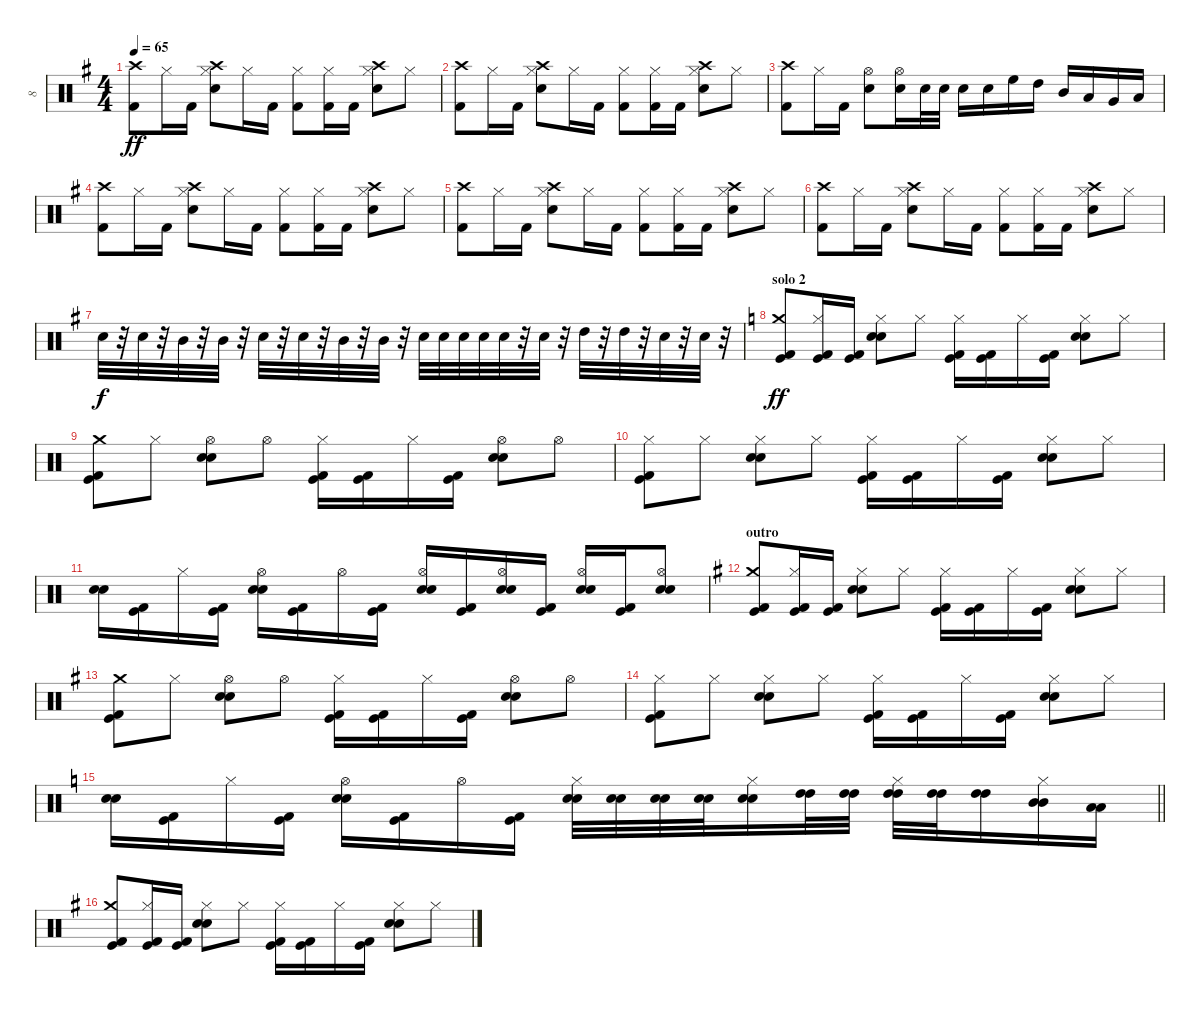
\track ("8" "8") {instrument percussion}
\staff {score}
\articulation defaults
\ts (4 4)
\tempo 65
\clef neutral
\ks eminor
("Kick (hit) 2" "Crash high (hit)").8{dy ff} "Hi-Hat (closed)".16 "Kick (hit) 2".16 ("Snare (hit) 2" "Hi-Hat (closed)" "Crash high (hit)").8 "Hi-Hat (closed)".16 "Kick (hit) 2".16 ("Kick (hit) 2" "Hi-Hat (closed)").8 ("Kick (hit) 2" "Hi-Hat (closed)").16 "Kick (hit) 2".16 ("Snare (hit) 2" "Hi-Hat (closed)" "Crash high (hit)").8 "Hi-Hat (closed)".8 |
("Kick (hit) 2" "Crash high (hit)").8 "Hi-Hat (closed)".16 "Kick (hit) 2".16 ("Snare (hit) 2" "Hi-Hat (closed)" "Crash high (hit)").8 "Hi-Hat (closed)".16 "Kick (hit) 2".16 ("Kick (hit) 2" "Hi-Hat (closed)").8 ("Kick (hit) 2" "Hi-Hat (closed)").16 "Kick (hit) 2".16 ("Snare (hit) 2" "Hi-Hat (closed)" "Crash high (hit)").8 "Hi-Hat (closed)".8 |
("Kick (hit) 2" "Crash high (hit)").8 "Hi-Hat (closed)".16 "Kick (hit) 2".16 ("Snare (hit) 2" "Hi-Hat (open)").8 ("Snare (hit) 2" "Hi-Hat (open)").16 "Snare (hit) 2".32 "Snare (hit) 2".32 "Snare (hit) 2".16 "Snare (hit) 2".16 "High Floor Tom (hit)".16 "High Tom (hit)".16 "Mid Tom (hit)".16 "Low Tom (hit)".16 "Very Low Tom (hit)".16 "Low Floor Tom (hit)".16 |
("Kick (hit) 2" "Crash high (hit)").8 "Hi-Hat (closed)".16 "Kick (hit) 2".16 ("Snare (hit) 2" "Hi-Hat (closed)" "Crash high (hit)").8 "Hi-Hat (closed)".16 "Kick (hit) 2".16 ("Kick (hit) 2" "Hi-Hat (closed)").8 ("Kick (hit) 2" "Hi-Hat (closed)").16 "Kick (hit) 2".16 ("Snare (hit) 2" "Hi-Hat (closed)" "Crash high (hit)").8 "Hi-Hat (closed)".8 |
("Kick (hit) 2" "Crash high (hit)").8 "Hi-Hat (closed)".16 "Kick (hit) 2".16 ("Snare (hit) 2" "Hi-Hat (closed)" "Crash high (hit)").8 "Hi-Hat (closed)".16 "Kick (hit) 2".16 ("Kick (hit) 2" "Hi-Hat (closed)").8 ("Kick (hit) 2" "Hi-Hat (closed)").16 "Kick (hit) 2".16 ("Snare (hit) 2" "Hi-Hat (closed)" "Crash high (hit)").8 "Hi-Hat (closed)".8 |
("Kick (hit) 2" "Crash high (hit)").8 "Hi-Hat (closed)".16 "Kick (hit) 2".16 ("Snare (hit) 2" "Hi-Hat (closed)" "Crash high (hit)").8 "Hi-Hat (closed)".16 "Kick (hit) 2".16 ("Kick (hit) 2" "Hi-Hat (closed)").8 ("Kick (hit) 2" "Hi-Hat (closed)").16 "Kick (hit) 2".16 ("Snare (hit) 2" "Hi-Hat (closed)" "Crash high (hit)").8 "Hi-Hat (closed)".8 |
"Snare (hit) 2".32{dy f} r.32 "Snare (hit) 2".32 r.32 "Mid Tom (hit)".32 r.32 "Mid Tom (hit)".32 r.32 "Snare (hit) 2".32 r.32 "Snare (hit) 2".32 r.32 "Mid Tom (hit)".32 r.32 "Mid Tom (hit)".32 r.32 "Snare (hit) 2".32 "Snare (hit) 2".32 "Snare (hit) 2".32 "Snare (hit) 2".32 "Snare (hit) 2".32 r.32 "Snare (hit) 2".32 r.32 "High Tom (hit)".32 r.32 "High Tom (hit)".32 r.32 "Snare (hit) 2".32 r.32 "Snare (hit) 2".32 r.32 |
\section ("" "solo 2")
\ks c
("Crash medium (hit)" "Kick (hit)" "Kick (hit) 2").8{dy ff} ("Hi-Hat (closed)" "Kick (hit)" "Kick (hit) 2").16 ("Kick (hit)" "Kick (hit) 2").16 ("Hi-Hat (closed)" "Snare (hit) 2" "Electric Snare (hit)").8 "Hi-Hat (closed)".8 ("Hi-Hat (closed)" "Kick (hit)" "Kick (hit) 2").16 ("Kick (hit)" "Kick (hit) 2").16 "Hi-Hat (closed)".16 ("Kick (hit)" "Kick (hit) 2").16 ("Hi-Hat (closed)" "Snare (hit) 2" "Electric Snare (hit)").8 "Hi-Hat (closed)".8 |
("Crash medium (hit)" "Kick (hit) 2" "Kick (hit)").8 "Hi-Hat (closed)".8 ("Hi-Hat (open)" "Snare (hit) 2" "Electric Snare (hit)").8 "Hi-Hat (open)".8 ("Hi-Hat (closed)" "Kick (hit)" "Kick (hit) 2").16 ("Kick (hit)" "Kick (hit) 2").16 "Hi-Hat (closed)".16 ("Kick (hit)" "Kick (hit) 2").16 ("Hi-Hat (open)" "Snare (hit) 2" "Electric Snare (hit)").8 "Hi-Hat (open)".8 |
("Hi-Hat (closed)" "Kick (hit)" "Kick (hit) 2").8 "Hi-Hat (closed)".8 ("Hi-Hat (closed)" "Snare (hit) 2" "Electric Snare (hit)").8 "Hi-Hat (closed)".8 ("Hi-Hat (closed)" "Kick (hit)" "Kick (hit) 2").16 ("Kick (hit)" "Kick (hit) 2").16 "Hi-Hat (closed)".16 ("Kick (hit)" "Kick (hit) 2").16 ("Hi-Hat (closed)" "Snare (hit) 2" "Electric Snare (hit)").8 "Hi-Hat (closed)".8 |
("Electric Snare (hit)" "Snare (hit) 2").16 ("Kick (hit)" "Kick (hit) 2").16 "Hi-Hat (closed)".16 ("Kick (hit)" "Kick (hit) 2").16 ("Hi-Hat (open)" "Snare (hit) 2" "Electric Snare (hit)").16 ("Kick (hit)" "Kick (hit) 2").16 "Hi-Hat (open)".16 ("Kick (hit)" "Kick (hit) 2").16 ("Hi-Hat (open)" "Electric Snare (hit)" "Snare (hit) 2").16 ("Kick (hit)" "Kick (hit) 2").16 ("Hi-Hat (open)" "Electric Snare (hit)" "Snare (hit) 2").16 ("Kick (hit)" "Kick (hit) 2").16 ("Hi-Hat (open)" "Electric Snare (hit)" "Snare (hit) 2").16 ("Kick (hit)" "Kick (hit) 2").16 ("Hi-Hat (open)" "Electric Snare (hit)" "Snare (hit) 2").8 |
\section ("" "outro")
\ks eminor
("Crash medium (hit)" "Kick (hit)" "Kick (hit) 2").8 ("Hi-Hat (closed)" "Kick (hit)" "Kick (hit) 2").16 ("Kick (hit)" "Kick (hit) 2").16 ("Hi-Hat (closed)" "Snare (hit) 2" "Electric Snare (hit)").8 "Hi-Hat (closed)".8 ("Hi-Hat (closed)" "Kick (hit)" "Kick (hit) 2").16 ("Kick (hit)" "Kick (hit) 2").16 "Hi-Hat (closed)".16 ("Kick (hit)" "Kick (hit) 2").16 ("Hi-Hat (closed)" "Snare (hit) 2" "Electric Snare (hit)").8 "Hi-Hat (closed)".8 |
("Crash medium (hit)" "Kick (hit) 2" "Kick (hit)").8 "Hi-Hat (closed)".8 ("Hi-Hat (open)" "Snare (hit) 2" "Electric Snare (hit)").8 "Hi-Hat (open)".8 ("Hi-Hat (closed)" "Kick (hit)" "Kick (hit) 2").16 ("Kick (hit)" "Kick (hit) 2").16 "Hi-Hat (closed)".16 ("Kick (hit)" "Kick (hit) 2").16 ("Hi-Hat (open)" "Snare (hit) 2" "Electric Snare (hit)").8 "Hi-Hat (open)".8 |
("Hi-Hat (closed)" "Kick (hit)" "Kick (hit) 2").8 "Hi-Hat (closed)".8 ("Hi-Hat (closed)" "Snare (hit) 2" "Electric Snare (hit)").8 "Hi-Hat (closed)".8 ("Hi-Hat (closed)" "Kick (hit)" "Kick (hit) 2").16 ("Kick (hit)" "Kick (hit) 2").16 "Hi-Hat (closed)".16 ("Kick (hit)" "Kick (hit) 2").16 ("Hi-Hat (closed)" "Snare (hit) 2" "Electric Snare (hit)").8 "Hi-Hat (closed)".8 |
\barLineRight lightlight
\ks c
("Electric Snare (hit)" "Snare (hit) 2").16 ("Kick (hit)" "Kick (hit) 2").16 "Hi-Hat (closed)".16 ("Kick (hit)" "Kick (hit) 2").16 ("Hi-Hat (open)" "Electric Snare (hit)" "Snare (hit) 2").16 ("Kick (hit)" "Kick (hit) 2").16 "Hi-Hat (open)".16 ("Kick (hit)" "Kick (hit) 2").16 ("Hi-Hat (closed)" "Snare (hit) 2" "Electric Snare (hit)").32 ("Snare (hit) 2" "Electric Snare (hit)").32 ("Snare (hit) 2" "Electric Snare (hit)").32 ("Snare (hit) 2" "Electric Snare (hit)").32 ("Hi-Hat (closed)" "Snare (hit) 2" "Electric Snare (hit)").16 ("High Tom (hit)" "High Tom (hit)").32 ("High Tom (hit)" "High Tom (hit)").32 ("Hi-Hat (closed)" "High Tom (hit)" "High Tom (hit)").32 ("High Tom (hit)" "High Tom (hit)").32 ("High Tom (hit)" "High Tom (hit)").16 ("Hi-Hat (closed)" "Mid Tom (hit)" "Mid Tom (hit)").16 ("Low Tom (hit)" "Low Tom (hit)").16 |
\ks eminor
("Crash medium (hit)" "Kick (hit)" "Kick (hit) 2").8 ("Hi-Hat (closed)" "Kick (hit)" "Kick (hit) 2").16 ("Kick (hit)" "Kick (hit) 2").16 ("Hi-Hat (closed)" "Snare (hit) 2" "Electric Snare (hit)").8 "Hi-Hat (closed)".8 ("Hi-Hat (closed)" "Kick (hit)" "Kick (hit) 2").16 ("Kick (hit)" "Kick (hit) 2").16 "Hi-Hat (closed)".16 ("Kick (hit)" "Kick (hit) 2").16 ("Hi-Hat (closed)" "Snare (hit) 2" "Electric Snare (hit)").8 "Hi-Hat (closed)".8
